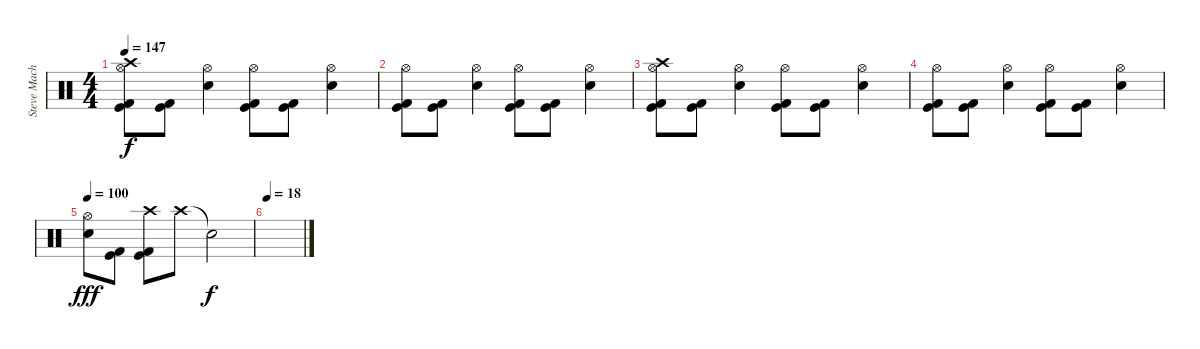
\track ("Steve Machine West" "Steve Mach") {instrument percussion}
\staff {score}
\articulation defaults
\ts (4 4)
\tempo 147
\clef neutral
\ks c
("Crash high (hit)" "Hi-Hat (open)" "Kick (hit)" "Kick (hit) 2").8{dy f} ("Kick (hit)" "Kick (hit) 2").8 ("Hi-Hat (open)" "Electric Snare (hit)").4 ("Hi-Hat (open)" "Kick (hit)" "Kick (hit) 2").8 ("Kick (hit)" "Kick (hit) 2").8 ("Hi-Hat (open)" "Electric Snare (hit)").4 |
("Hi-Hat (open)" "Kick (hit)" "Kick (hit) 2").8 ("Kick (hit)" "Kick (hit) 2").8 ("Hi-Hat (open)" "Electric Snare (hit)").4 ("Hi-Hat (open)" "Kick (hit)" "Kick (hit) 2").8 ("Kick (hit)" "Kick (hit) 2").8 ("Hi-Hat (open)" "Electric Snare (hit)").4 |
("Crash high (hit)" "Hi-Hat (open)" "Kick (hit)" "Kick (hit) 2").8 ("Kick (hit)" "Kick (hit) 2").8 ("Hi-Hat (open)" "Electric Snare (hit)").4 ("Hi-Hat (open)" "Kick (hit)" "Kick (hit) 2").8 ("Kick (hit)" "Kick (hit) 2").8 ("Hi-Hat (open)" "Electric Snare (hit)").4 |
("Hi-Hat (open)" "Kick (hit)" "Kick (hit) 2").8 ("Kick (hit)" "Kick (hit) 2").8 ("Hi-Hat (open)" "Electric Snare (hit)").4 ("Hi-Hat (open)" "Kick (hit)" "Kick (hit) 2").8 ("Kick (hit)" "Kick (hit) 2").8 ("Hi-Hat (open)" "Electric Snare (hit)").4 |
\tempo 100
("Hi-Hat (open)" "Electric Snare (hit)").8{dy fff} ("Kick (hit)" "Kick (hit) 2").8 ("Crash high (hit)" "Kick (hit)" "Kick (hit) 2").8 "Crash high (hit)".8 "Snare (hit)"{t}.2{dy f} |
\tempo 18
